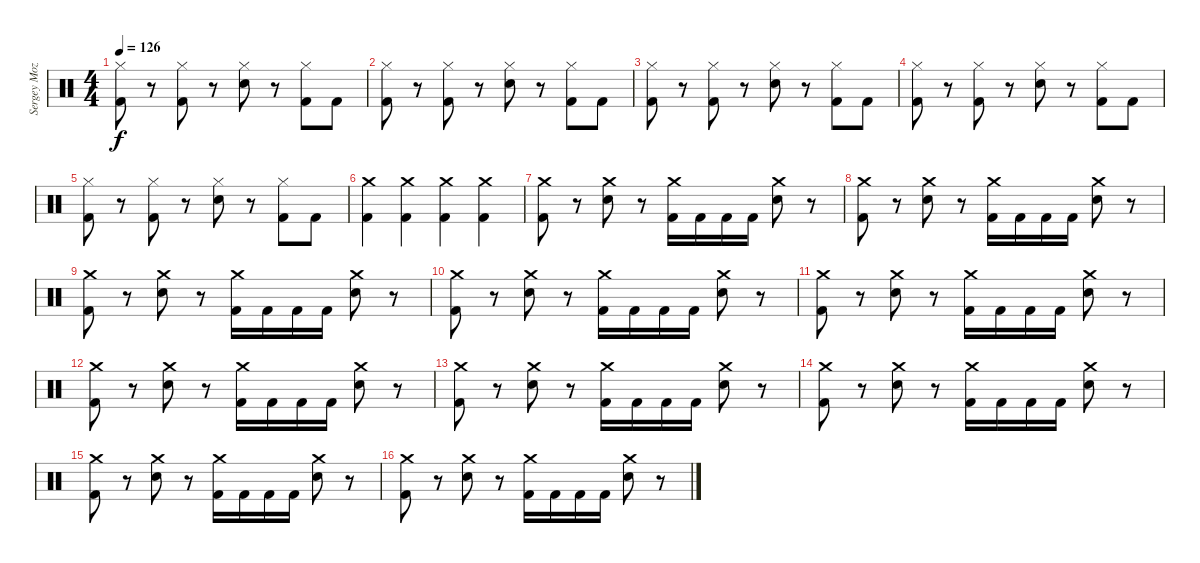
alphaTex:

\track ("Sergey Mozalev" "Sergey Moz") {instrument percussion}
\staff {score}
\articulation defaults
\ts (4 4)
\tempo 126
\clef neutral
\ks c
("Hi-Hat (closed)" "Kick (hit) 2").8{dy f} r.8 ("Hi-Hat (closed)" "Kick (hit) 2").8 r.8 ("Hi-Hat (closed)" "Electric Snare (hit)").8 r.8 ("Hi-Hat (closed)" "Kick (hit) 2").8 "Kick (hit) 2".8 |
("Hi-Hat (closed)" "Kick (hit) 2").8 r.8 ("Hi-Hat (closed)" "Kick (hit) 2").8 r.8 ("Hi-Hat (closed)" "Electric Snare (hit)").8 r.8 ("Hi-Hat (closed)" "Kick (hit) 2").8 "Kick (hit) 2".8 |
("Hi-Hat (closed)" "Kick (hit) 2").8 r.8 ("Hi-Hat (closed)" "Kick (hit) 2").8 r.8 ("Hi-Hat (closed)" "Electric Snare (hit)").8 r.8 ("Hi-Hat (closed)" "Kick (hit) 2").8 "Kick (hit) 2".8 |
("Hi-Hat (closed)" "Kick (hit) 2").8 r.8 ("Hi-Hat (closed)" "Kick (hit) 2").8 r.8 ("Hi-Hat (closed)" "Electric Snare (hit)").8 r.8 ("Hi-Hat (closed)" "Kick (hit) 2").8 "Kick (hit) 2".8 |
("Hi-Hat (closed)" "Kick (hit) 2").8 r.8 ("Hi-Hat (closed)" "Kick (hit) 2").8 r.8 ("Hi-Hat (closed)" "Electric Snare (hit)").8 r.8 ("Hi-Hat (closed)" "Kick (hit) 2").8 "Kick (hit) 2".8 |
("Crash medium (hit)" "Kick (hit) 2").4 ("Crash medium (hit)" "Kick (hit) 2").4 ("Crash medium (hit)" "Kick (hit) 2").4 ("Crash medium (hit)" "Kick (hit) 2").4 |
("Crash medium (hit)" "Kick (hit) 2").8 r.8 ("Crash medium (hit)" "Electric Snare (hit)").8 r.8 ("Crash medium (hit)" "Kick (hit) 2").16 "Kick (hit) 2".16 "Kick (hit) 2".16 "Kick (hit) 2".16 ("Crash medium (hit)" "Electric Snare (hit)").8 r.8 |
("Crash medium (hit)" "Kick (hit) 2").8 r.8 ("Crash medium (hit)" "Electric Snare (hit)").8 r.8 ("Crash medium (hit)" "Kick (hit) 2").16 "Kick (hit) 2".16 "Kick (hit) 2".16 "Kick (hit) 2".16 ("Crash medium (hit)" "Electric Snare (hit)").8 r.8 |
("Crash medium (hit)" "Kick (hit) 2").8 r.8 ("Crash medium (hit)" "Electric Snare (hit)").8 r.8 ("Crash medium (hit)" "Kick (hit) 2").16 "Kick (hit) 2".16 "Kick (hit) 2".16 "Kick (hit) 2".16 ("Crash medium (hit)" "Electric Snare (hit)").8 r.8 |
("Crash medium (hit)" "Kick (hit) 2").8 r.8 ("Crash medium (hit)" "Electric Snare (hit)").8 r.8 ("Crash medium (hit)" "Kick (hit) 2").16 "Kick (hit) 2".16 "Kick (hit) 2".16 "Kick (hit) 2".16 ("Crash medium (hit)" "Electric Snare (hit)").8 r.8 |
("Crash medium (hit)" "Kick (hit) 2").8 r.8 ("Crash medium (hit)" "Electric Snare (hit)").8 r.8 ("Crash medium (hit)" "Kick (hit) 2").16 "Kick (hit) 2".16 "Kick (hit) 2".16 "Kick (hit) 2".16 ("Crash medium (hit)" "Electric Snare (hit)").8 r.8 |
("Crash medium (hit)" "Kick (hit) 2").8 r.8 ("Crash medium (hit)" "Electric Snare (hit)").8 r.8 ("Crash medium (hit)" "Kick (hit) 2").16 "Kick (hit) 2".16 "Kick (hit) 2".16 "Kick (hit) 2".16 ("Crash medium (hit)" "Electric Snare (hit)").8 r.8 |
("Crash medium (hit)" "Kick (hit) 2").8 r.8 ("Crash medium (hit)" "Electric Snare (hit)").8 r.8 ("Crash medium (hit)" "Kick (hit) 2").16 "Kick (hit) 2".16 "Kick (hit) 2".16 "Kick (hit) 2".16 ("Crash medium (hit)" "Electric Snare (hit)").8 r.8 |
("Crash medium (hit)" "Kick (hit) 2").8 r.8 ("Crash medium (hit)" "Electric Snare (hit)").8 r.8 ("Crash medium (hit)" "Kick (hit) 2").16 "Kick (hit) 2".16 "Kick (hit) 2".16 "Kick (hit) 2".16 ("Crash medium (hit)" "Electric Snare (hit)").8 r.8 |
("Crash medium (hit)" "Kick (hit) 2").8 r.8 ("Crash medium (hit)" "Electric Snare (hit)").8 r.8 ("Crash medium (hit)" "Kick (hit) 2").16 "Kick (hit) 2".16 "Kick (hit) 2".16 "Kick (hit) 2".16 ("Crash medium (hit)" "Electric Snare (hit)").8 r.8 |
("Crash medium (hit)" "Kick (hit) 2").8 r.8 ("Crash medium (hit)" "Electric Snare (hit)").8 r.8 ("Crash medium (hit)" "Kick (hit) 2").16 "Kick (hit) 2".16 "Kick (hit) 2".16 "Kick (hit) 2".16 ("Crash medium (hit)" "Electric Snare (hit)").8 r.8
